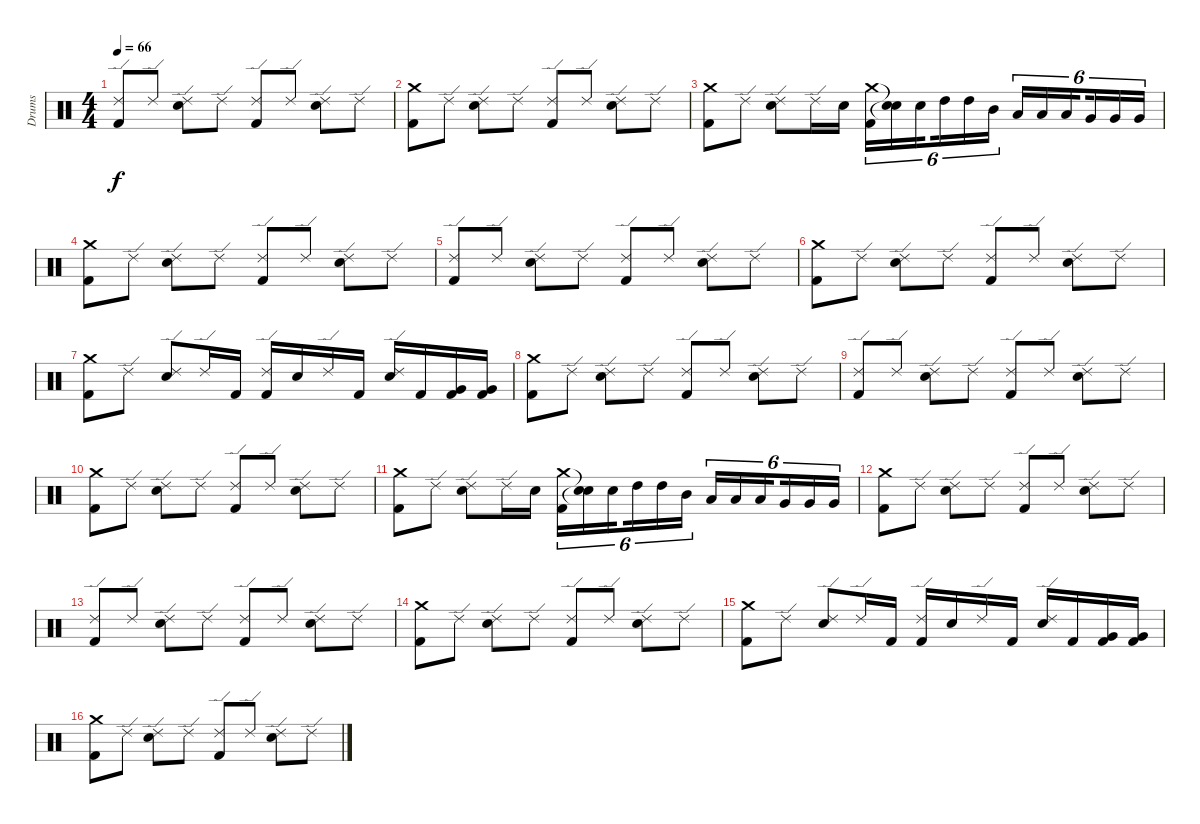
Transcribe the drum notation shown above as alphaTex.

\track ("Drums" "Drums") {instrument percussion}
\staff {score}
\articulation defaults
\ts (4 4)
\tempo 66
\clef neutral
\ks c
("Ride (edge) 2" "Kick (hit) 2").8{dy f} "Ride (edge) 2".8 ("Ride (edge) 2" "Snare (hit) 2").8 "Ride (edge) 2".8 ("Ride (edge) 2" "Kick (hit) 2").8 "Ride (edge) 2".8 ("Ride (edge) 2" "Snare (hit) 2").8 "Ride (edge) 2".8 |
("Crash medium (hit)" "Kick (hit) 2").8 "Ride (edge) 2".8 ("Ride (edge) 2" "Snare (hit) 2").8 "Ride (edge) 2".8 ("Ride (edge) 2" "Kick (hit) 2").8 "Ride (edge) 2".8 ("Ride (edge) 2" "Snare (hit) 2").8 "Ride (edge) 2".8 |
("Crash medium (hit)" "Kick (hit) 2").8 "Ride (edge) 2".8 ("Snare (hit) 2" "Ride (edge) 2").8 "Ride (edge) 2".16 "Snare (hit) 2".16 ("Crash medium (hit)" "Kick (hit) 2").16{tu (6 4)} ("Snare (hit)"{t} "Snare (hit)"{t}).16{tu (6 4)} "Snare (hit) 2".16{tu (6 4) beam splitsecondary} "High Tom (hit)".16{tu (6 4)} "High Tom (hit)".16{tu (6 4)} "Mid Tom (hit)".16{tu (6 4)} "Low Tom (hit)".16{tu (6 4)} "Low Tom (hit)".16{tu (6 4)} "Low Tom (hit)".16{tu (6 4) beam splitsecondary} "Very Low Tom (hit)".16{tu (6 4)} "Very Low Tom (hit)".16{tu (6 4)} "Very Low Tom (hit)".16{tu (6 4)} |
("Kick (hit) 2" "Crash medium (hit)").8 "Ride (edge) 2".8 ("Snare (hit) 2" "Ride (edge) 2").8 "Ride (edge) 2".8 ("Kick (hit) 2" "Ride (edge) 2").8 "Ride (edge) 2".8 ("Snare (hit) 2" "Ride (edge) 2").8 "Ride (edge) 2".8 |
("Ride (edge) 2" "Kick (hit) 2").8 "Ride (edge) 2".8{volume 15} ("Ride (edge) 2" "Snare (hit) 2").8{volume 14} "Ride (edge) 2".8{volume 14} ("Ride (edge) 2" "Kick (hit) 2").8{volume 14} "Ride (edge) 2".8 ("Ride (edge) 2" "Snare (hit) 2").8{volume 14} "Ride (edge) 2".8{volume 13} |
("Crash medium (hit)" "Kick (hit) 2").8 "Ride (edge) 2".8 ("Ride (edge) 2" "Snare (hit) 2").8{volume 13} "Ride (edge) 2".8{volume 13} ("Ride (edge) 2" "Kick (hit) 2").8 "Ride (edge) 2".8 ("Ride (edge) 2" "Snare (hit) 2").8 "Ride (edge) 2".8 |
("Kick (hit) 2" "Crash medium (hit)").8 "Ride (edge) 2".8{volume 13} ("Snare (hit) 2" "Ride (edge) 2").8 "Ride (edge) 2".16{volume 12} "Kick (hit) 2".16{volume 12} ("Kick (hit) 2" "Ride (edge) 2").16 "Snare (hit) 2".16 "Ride (edge) 2".16{volume 12} "Kick (hit) 2".16 ("Snare (hit) 2" "Ride (edge) 2").16 "Kick (hit) 2".16 ("Kick (hit) 2" "Very Low Tom (hit)").16 ("Kick (hit) 2" "Very Low Tom (hit)").16 |
("Kick (hit) 2" "Crash medium (hit)").8 "Ride (edge) 2".8 ("Snare (hit) 2" "Ride (edge) 2").8{volume 12} "Ride (edge) 2".8 ("Kick (hit) 2" "Ride (edge) 2").8 "Ride (edge) 2".8 ("Snare (hit) 2" "Ride (edge) 2").8 "Ride (edge) 2".8{volume 12} |
("Ride (edge) 2" "Kick (hit) 2").8{volume 11} "Ride (edge) 2".8 ("Ride (edge) 2" "Snare (hit) 2").8 "Ride (edge) 2".8{volume 11} ("Ride (edge) 2" "Kick (hit) 2").8 "Ride (edge) 2".8{volume 11} ("Ride (edge) 2" "Snare (hit) 2").8{volume 10} "Ride (edge) 2".8{volume 10} |
("Crash medium (hit)" "Kick (hit) 2").8 "Ride (edge) 2".8{volume 10} ("Ride (edge) 2" "Snare (hit) 2").8{volume 10} "Ride (edge) 2".8 ("Ride (edge) 2" "Kick (hit) 2").8{volume 10} "Ride (edge) 2".8 ("Ride (edge) 2" "Snare (hit) 2").8 "Ride (edge) 2".8{volume 9} |
("Crash medium (hit)" "Kick (hit) 2").8 "Ride (edge) 2".8{volume 9} ("Snare (hit) 2" "Ride (edge) 2").8{volume 9} "Ride (edge) 2".16 "Snare (hit) 2".16 ("Crash medium (hit)" "Kick (hit) 2").16{tu (6 4) volume 9} ("Snare (hit)"{t} "Snare (hit)"{t}).16{tu (6 4)} "Snare (hit) 2".16{tu (6 4) beam splitsecondary} "High Tom (hit)".16{tu (6 4)} "High Tom (hit)".16{tu (6 4)} "Mid Tom (hit)".16{tu (6 4)} "Low Tom (hit)".16{tu (6 4)} "Low Tom (hit)".16{tu (6 4) volume 8} "Low Tom (hit)".16{tu (6 4) beam splitsecondary} "Very Low Tom (hit)".16{tu (6 4)} "Very Low Tom (hit)".16{tu (6 4) volume 8} "Very Low Tom (hit)".16{tu (6 4)} |
("Kick (hit) 2" "Crash medium (hit)").8 "Ride (edge) 2".8{volume 8} ("Snare (hit) 2" "Ride (edge) 2").8{volume 8} "Ride (edge) 2".8{volume 8} ("Kick (hit) 2" "Ride (edge) 2").8{volume 7} "Ride (edge) 2".8 ("Snare (hit) 2" "Ride (edge) 2").8 "Ride (edge) 2".8 |
("Ride (edge) 2" "Kick (hit) 2").8{volume 7} "Ride (edge) 2".8{volume 7} ("Ride (edge) 2" "Snare (hit) 2").8 "Ride (edge) 2".8 ("Ride (edge) 2" "Kick (hit) 2").8 "Ride (edge) 2".8 ("Ride (edge) 2" "Snare (hit) 2").8{volume 7} "Ride (edge) 2".8 |
("Crash medium (hit)" "Kick (hit) 2").8{volume 6} "Ride (edge) 2".8 ("Ride (edge) 2" "Snare (hit) 2").8{volume 6} "Ride (edge) 2".8 ("Ride (edge) 2" "Kick (hit) 2").8{volume 6} "Ride (edge) 2".8 ("Ride (edge) 2" "Snare (hit) 2").8 "Ride (edge) 2".8 |
("Kick (hit) 2" "Crash medium (hit)").8 "Ride (edge) 2".8{volume 6} ("Snare (hit) 2" "Ride (edge) 2").8 "Ride (edge) 2".16{volume 6} "Kick (hit) 2".16 ("Kick (hit) 2" "Ride (edge) 2").16 "Snare (hit) 2".16{volume 5} "Ride (edge) 2".16 "Kick (hit) 2".16{volume 5} ("Snare (hit) 2" "Ride (edge) 2").16 "Kick (hit) 2".16 ("Kick (hit) 2" "Very Low Tom (hit)").16 ("Kick (hit) 2" "Very Low Tom (hit)").16 |
("Kick (hit) 2" "Crash medium (hit)").8 "Ride (edge) 2".8 ("Snare (hit) 2" "Ride (edge) 2").8{volume 5} "Ride (edge) 2".8 ("Kick (hit) 2" "Ride (edge) 2").8 "Ride (edge) 2".8{volume 5} ("Snare (hit) 2" "Ride (edge) 2").8{volume 4} "Ride (edge) 2".8{volume 4}
